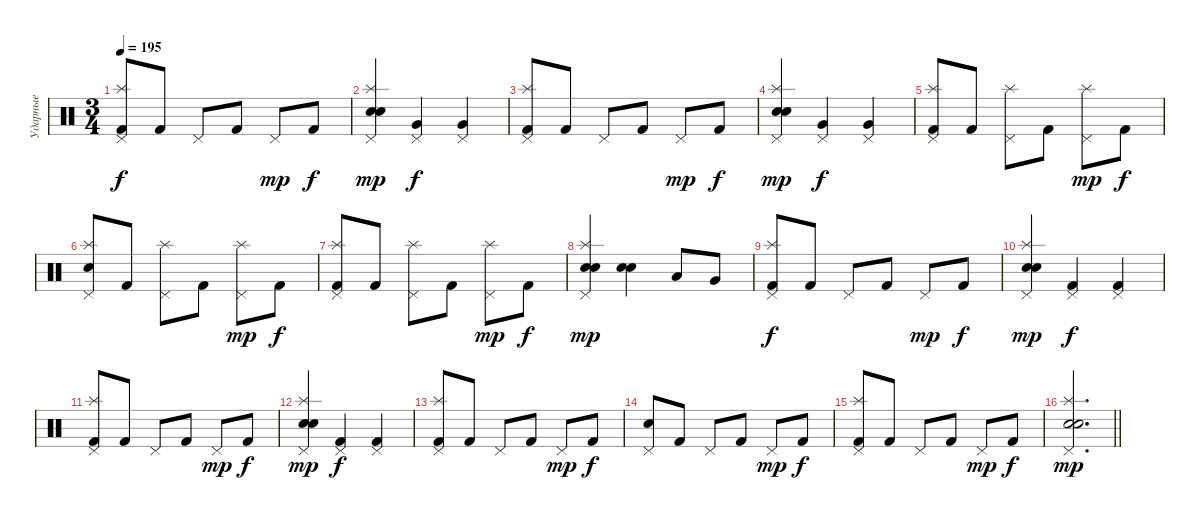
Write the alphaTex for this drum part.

\track ("Ударные" "Ударные") {instrument percussion}
\staff {score}
\articulation defaults
\ts (3 4)
\tempo 195
\clef neutral
\ks c
("Pedal Hi-Hat (hit)" "Splash (hit)" "Kick (hit) 2").8{dy f} "Kick (hit) 2".8 "Pedal Hi-Hat (hit)".8 "Kick (hit) 2".8 "Pedal Hi-Hat (hit)".8{dy mp} "Kick (hit) 2".8{dy f} |
("Pedal Hi-Hat (hit)" "Splash (hit)" "Electric Snare (hit)" "Snare (hit) 2").4{dy mp} ("Pedal Hi-Hat (hit)" "Very Low Tom (hit)").4{dy f} ("Pedal Hi-Hat (hit)" "Very Low Tom (hit)").4 |
("Pedal Hi-Hat (hit)" "Splash (hit)" "Kick (hit) 2").8 "Kick (hit) 2".8 "Pedal Hi-Hat (hit)".8 "Kick (hit) 2".8 "Pedal Hi-Hat (hit)".8{dy mp} "Kick (hit) 2".8{dy f} |
("Pedal Hi-Hat (hit)" "Splash (hit)" "Electric Snare (hit)" "Snare (hit) 2").4{dy mp} ("Pedal Hi-Hat (hit)" "Very Low Tom (hit)").4{dy f} ("Pedal Hi-Hat (hit)" "Very Low Tom (hit)").4 |
("Pedal Hi-Hat (hit)" "Splash (hit)" "Kick (hit) 2").8 "Kick (hit) 2".8 ("Pedal Hi-Hat (hit)" "Splash (hit)").8 "Kick (hit) 2".8 ("Pedal Hi-Hat (hit)" "Splash (hit)").8{dy mp} "Kick (hit) 2".8{dy f} |
("Pedal Hi-Hat (hit)" "Splash (hit)" "Electric Snare (hit)").8 "Kick (hit) 2".8 ("Pedal Hi-Hat (hit)" "Splash (hit)").8 "Kick (hit) 2".8 ("Pedal Hi-Hat (hit)" "Splash (hit)").8{dy mp} "Kick (hit) 2".8{dy f} |
("Pedal Hi-Hat (hit)" "Splash (hit)" "Kick (hit) 2").8 "Kick (hit) 2".8 ("Pedal Hi-Hat (hit)" "Splash (hit)").8 "Kick (hit) 2".8 ("Pedal Hi-Hat (hit)" "Splash (hit)").8{dy mp} "Kick (hit) 2".8{dy f} |
("Pedal Hi-Hat (hit)" "Splash (hit)" "Electric Snare (hit)" "Snare (hit) 2").4{dy mp} ("Electric Snare (hit)" "Snare (hit) 2").4 "Low Tom (hit)".8 "Very Low Tom (hit)".8 |
("Pedal Hi-Hat (hit)" "Splash (hit)" "Kick (hit) 2").8{dy f} "Kick (hit) 2".8 "Pedal Hi-Hat (hit)".8 "Kick (hit) 2".8 "Pedal Hi-Hat (hit)".8{dy mp} "Kick (hit) 2".8{dy f} |
("Pedal Hi-Hat (hit)" "Splash (hit)" "Electric Snare (hit)" "Snare (hit) 2").4{dy mp} ("Pedal Hi-Hat (hit)" "Kick (hit) 2").4{dy f} ("Pedal Hi-Hat (hit)" "Kick (hit) 2").4 |
("Pedal Hi-Hat (hit)" "Splash (hit)" "Kick (hit) 2").8 "Kick (hit) 2".8 "Pedal Hi-Hat (hit)".8 "Kick (hit) 2".8 "Pedal Hi-Hat (hit)".8{dy mp} "Kick (hit) 2".8{dy f} |
("Pedal Hi-Hat (hit)" "Splash (hit)" "Electric Snare (hit)" "Snare (hit) 2").4{dy mp} ("Pedal Hi-Hat (hit)" "Kick (hit) 2").4{dy f} ("Pedal Hi-Hat (hit)" "Kick (hit) 2").4 |
("Pedal Hi-Hat (hit)" "Splash (hit)" "Kick (hit) 2").8 "Kick (hit) 2".8 "Pedal Hi-Hat (hit)".8 "Kick (hit) 2".8 "Pedal Hi-Hat (hit)".8{dy mp} "Kick (hit) 2".8{dy f} |
("Pedal Hi-Hat (hit)" "Electric Snare (hit)").8 "Kick (hit) 2".8 "Pedal Hi-Hat (hit)".8 "Kick (hit) 2".8 "Pedal Hi-Hat (hit)".8{dy mp} "Kick (hit) 2".8{dy f} |
("Pedal Hi-Hat (hit)" "Splash (hit)" "Kick (hit) 2").8 "Kick (hit) 2".8 "Pedal Hi-Hat (hit)".8 "Kick (hit) 2".8 "Pedal Hi-Hat (hit)".8{dy mp} "Kick (hit) 2".8{dy f} |
\barLineRight lightlight
("Pedal Hi-Hat (hit)" "Splash (hit)" "Electric Snare (hit)" "Snare (hit) 2").2{d dy mp}
